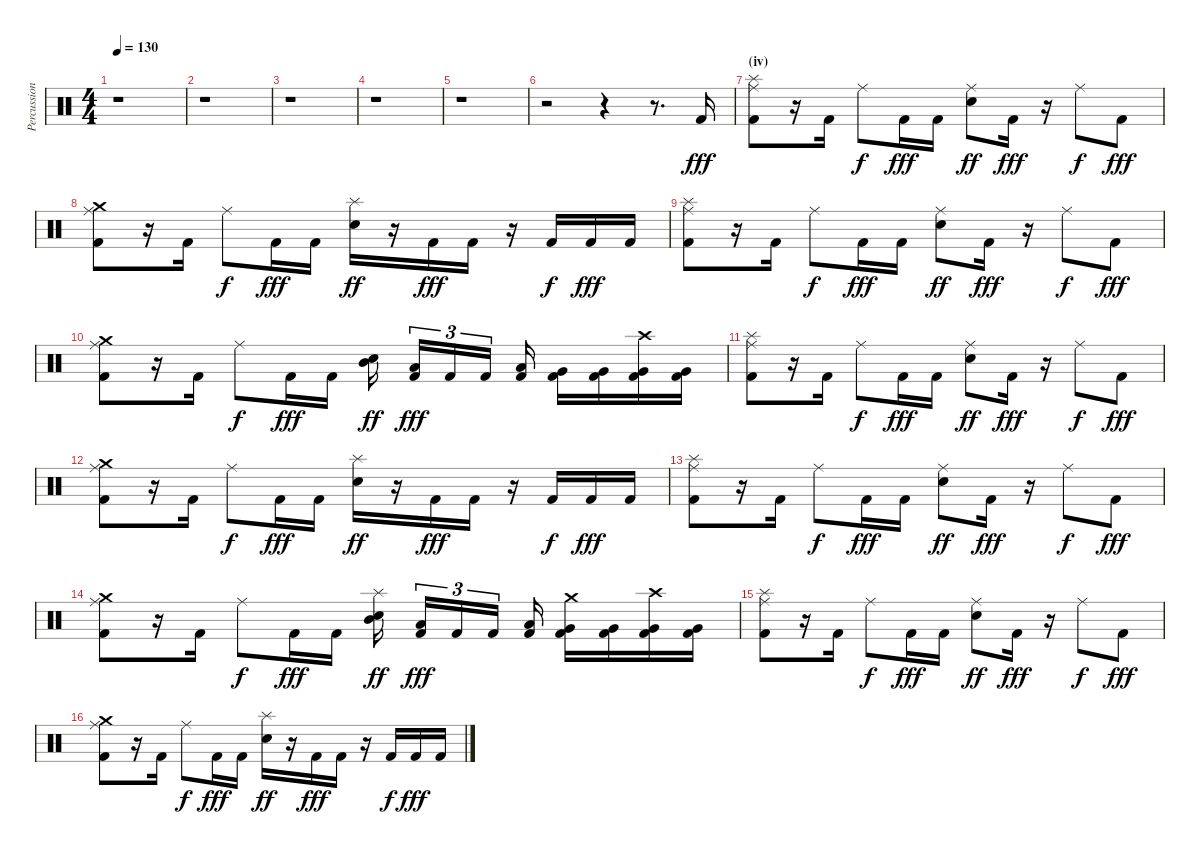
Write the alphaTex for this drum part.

\track ("Percussion" "Percussion") {instrument percussion}
\staff {score}
\articulation defaults
\ts (4 4)
\tempo 130
\clef neutral
\ks c
r.1{dy f} |
r.1 |
r.1 |
r.1 |
r.1 |
r.2 r.4 r.8{d} "Kick (hit) 2".16{dy fff} |
\section ("" "(iv)")
("Splash (hit)" "Ride (middle)" "Kick (hit) 2").8 r.16 "Kick (hit) 2".16 "Ride (middle)".8{dy f} "Kick (hit) 2".16{dy fff} "Kick (hit) 2".16 ("Ride (middle)" "Snare (hit) 2").8{dy ff} "Kick (hit) 2".16{dy fff} r.16 "Ride (middle)".8{dy f} "Kick (hit) 2".8{dy fff} |
("Crash medium (hit)" "Ride (middle)" "Kick (hit) 2").8 r.16 "Kick (hit) 2".16 "Ride (middle)".8{dy f} "Kick (hit) 2".16{dy fff} "Kick (hit) 2".16 ("Splash (hit)" "Snare (hit) 2").16{dy ff} r.16 "Kick (hit) 2".16{dy fff} "Kick (hit) 2".16 r.16 "Kick (hit) 2".16{dy f} "Kick (hit) 2".16{dy fff} "Kick (hit) 2".16 |
("Splash (hit)" "Ride (middle)" "Kick (hit) 2").8 r.16 "Kick (hit) 2".16 "Ride (middle)".8{dy f} "Kick (hit) 2".16{dy fff} "Kick (hit) 2".16 ("Ride (middle)" "Snare (hit) 2").8{dy ff} "Kick (hit) 2".16{dy fff} r.16 "Ride (middle)".8{dy f} "Kick (hit) 2".8{dy fff} |
("Crash medium (hit)" "Ride (middle)" "Kick (hit) 2").8 r.16 "Kick (hit) 2".16 "Ride (middle)".8{dy f} "Kick (hit) 2".16{dy fff} "Kick (hit) 2".16 ("Mid Tom (hit)" "Snare (hit) 2").16{dy ff} ("Low Tom (hit)" "Kick (hit) 2").16{tu (3 2) dy fff} "Kick (hit) 2".16{tu (3 2)} "Kick (hit) 2".16{tu (3 2)} ("Low Tom (hit)" "Kick (hit) 2").16 ("Very Low Tom (hit)" "Kick (hit) 2").16 ("Very Low Tom (hit)" "Kick (hit) 2").16 ("Crash high (hit)" "Very Low Tom (hit)" "Kick (hit) 2").16 ("Very Low Tom (hit)" "Kick (hit) 2").16 |
("Splash (hit)" "Ride (middle)" "Kick (hit) 2").8 r.16 "Kick (hit) 2".16 "Ride (middle)".8{dy f} "Kick (hit) 2".16{dy fff} "Kick (hit) 2".16 ("Ride (middle)" "Snare (hit) 2").8{dy ff} "Kick (hit) 2".16{dy fff} r.16 "Ride (middle)".8{dy f} "Kick (hit) 2".8{dy fff} |
("Crash medium (hit)" "Ride (middle)" "Kick (hit) 2").8 r.16 "Kick (hit) 2".16 "Ride (middle)".8{dy f} "Kick (hit) 2".16{dy fff} "Kick (hit) 2".16 ("Splash (hit)" "Snare (hit) 2").16{dy ff} r.16 "Kick (hit) 2".16{dy fff} "Kick (hit) 2".16 r.16 "Kick (hit) 2".16{dy f} "Kick (hit) 2".16{dy fff} "Kick (hit) 2".16 |
("Splash (hit)" "Ride (middle)" "Kick (hit) 2").8 r.16 "Kick (hit) 2".16 "Ride (middle)".8{dy f} "Kick (hit) 2".16{dy fff} "Kick (hit) 2".16 ("Ride (middle)" "Snare (hit) 2").8{dy ff} "Kick (hit) 2".16{dy fff} r.16 "Ride (middle)".8{dy f} "Kick (hit) 2".8{dy fff} |
("Crash medium (hit)" "Ride (middle)" "Kick (hit) 2").8 r.16 "Kick (hit) 2".16 "Ride (middle)".8{dy f} "Kick (hit) 2".16{dy fff} "Kick (hit) 2".16 ("Splash (hit)" "Mid Tom (hit)" "Snare (hit) 2").16{dy ff} ("Low Tom (hit)" "Kick (hit) 2").16{tu (3 2) dy fff} "Kick (hit) 2".16{tu (3 2)} "Kick (hit) 2".16{tu (3 2)} ("Low Tom (hit)" "Kick (hit) 2").16 ("Crash medium (hit)" "Very Low Tom (hit)" "Kick (hit) 2").16 ("Very Low Tom (hit)" "Kick (hit) 2").16 ("Crash high (hit)" "Very Low Tom (hit)" "Kick (hit) 2").16 ("Very Low Tom (hit)" "Kick (hit) 2").16 |
("Splash (hit)" "Ride (middle)" "Kick (hit) 2").8 r.16 "Kick (hit) 2".16 "Ride (middle)".8{dy f} "Kick (hit) 2".16{dy fff} "Kick (hit) 2".16 ("Ride (middle)" "Snare (hit) 2").8{dy ff} "Kick (hit) 2".16{dy fff} r.16 "Ride (middle)".8{dy f} "Kick (hit) 2".8{dy fff} |
("Crash medium (hit)" "Ride (middle)" "Kick (hit) 2").8 r.16 "Kick (hit) 2".16 "Ride (middle)".8{dy f} "Kick (hit) 2".16{dy fff} "Kick (hit) 2".16 ("Splash (hit)" "Snare (hit) 2").16{dy ff} r.16 "Kick (hit) 2".16{dy fff} "Kick (hit) 2".16 r.16 "Kick (hit) 2".16{dy f} "Kick (hit) 2".16{dy fff} "Kick (hit) 2".16
